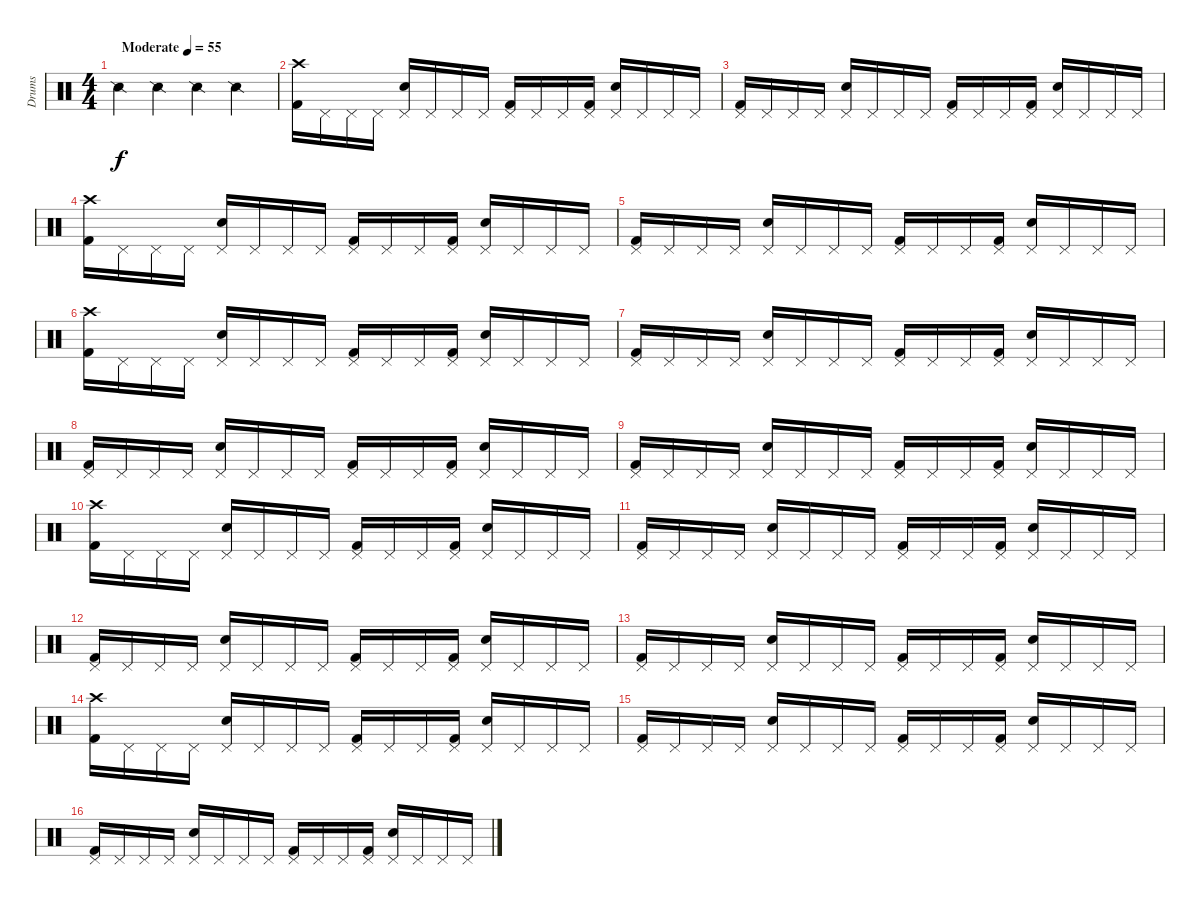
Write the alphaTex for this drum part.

\track ("Drums" "Drums") {instrument percussion}
\staff {score}
\articulation defaults
\ts (4 4)
\tempo (55 "Moderate")
\clef neutral
\ks c "Snare (side stick) 2".4{dy f} "Snare (side stick) 2".4 "Snare (side stick) 2".4 "Snare (side stick) 2".4
|
("Crash high (hit)" "Kick (hit) 2").16 "Pedal Hi-Hat (hit)".16 "Pedal Hi-Hat (hit)".16 "Pedal Hi-Hat (hit)".16 ("Pedal Hi-Hat (hit)" "Electric Snare (hit)").16 "Pedal Hi-Hat (hit)".16 "Pedal Hi-Hat (hit)".16 "Pedal Hi-Hat (hit)".16 ("Pedal Hi-Hat (hit)" "Kick (hit) 2").16 "Pedal Hi-Hat (hit)".16 "Pedal Hi-Hat (hit)".16 ("Pedal Hi-Hat (hit)" "Kick (hit) 2").16 ("Pedal Hi-Hat (hit)" "Electric Snare (hit)").16 "Pedal Hi-Hat (hit)".16 "Pedal Hi-Hat (hit)".16 "Pedal Hi-Hat (hit)".16 |
("Pedal Hi-Hat (hit)" "Kick (hit) 2").16 "Pedal Hi-Hat (hit)".16 "Pedal Hi-Hat (hit)".16 "Pedal Hi-Hat (hit)".16 ("Pedal Hi-Hat (hit)" "Electric Snare (hit)").16 "Pedal Hi-Hat (hit)".16 "Pedal Hi-Hat (hit)".16 "Pedal Hi-Hat (hit)".16 ("Pedal Hi-Hat (hit)" "Kick (hit) 2").16 "Pedal Hi-Hat (hit)".16 "Pedal Hi-Hat (hit)".16 ("Pedal Hi-Hat (hit)" "Kick (hit) 2").16 ("Pedal Hi-Hat (hit)" "Electric Snare (hit)").16 "Pedal Hi-Hat (hit)".16 "Pedal Hi-Hat (hit)".16 "Pedal Hi-Hat (hit)".16 |
("Crash high (hit)" "Kick (hit) 2").16 "Pedal Hi-Hat (hit)".16 "Pedal Hi-Hat (hit)".16 "Pedal Hi-Hat (hit)".16 ("Pedal Hi-Hat (hit)" "Electric Snare (hit)").16 "Pedal Hi-Hat (hit)".16 "Pedal Hi-Hat (hit)".16 "Pedal Hi-Hat (hit)".16 ("Pedal Hi-Hat (hit)" "Kick (hit) 2").16 "Pedal Hi-Hat (hit)".16 "Pedal Hi-Hat (hit)".16 ("Pedal Hi-Hat (hit)" "Kick (hit) 2").16 ("Pedal Hi-Hat (hit)" "Electric Snare (hit)").16 "Pedal Hi-Hat (hit)".16 "Pedal Hi-Hat (hit)".16 "Pedal Hi-Hat (hit)".16 |
("Pedal Hi-Hat (hit)" "Kick (hit) 2").16 "Pedal Hi-Hat (hit)".16 "Pedal Hi-Hat (hit)".16 "Pedal Hi-Hat (hit)".16 ("Pedal Hi-Hat (hit)" "Electric Snare (hit)").16 "Pedal Hi-Hat (hit)".16 "Pedal Hi-Hat (hit)".16 "Pedal Hi-Hat (hit)".16 ("Pedal Hi-Hat (hit)" "Kick (hit) 2").16 "Pedal Hi-Hat (hit)".16 "Pedal Hi-Hat (hit)".16 ("Pedal Hi-Hat (hit)" "Kick (hit) 2").16 ("Pedal Hi-Hat (hit)" "Electric Snare (hit)").16 "Pedal Hi-Hat (hit)".16 "Pedal Hi-Hat (hit)".16 "Pedal Hi-Hat (hit)".16 |
("Crash high (hit)" "Kick (hit) 2").16 "Pedal Hi-Hat (hit)".16 "Pedal Hi-Hat (hit)".16 "Pedal Hi-Hat (hit)".16 ("Pedal Hi-Hat (hit)" "Electric Snare (hit)").16 "Pedal Hi-Hat (hit)".16 "Pedal Hi-Hat (hit)".16 "Pedal Hi-Hat (hit)".16 ("Pedal Hi-Hat (hit)" "Kick (hit) 2").16 "Pedal Hi-Hat (hit)".16 "Pedal Hi-Hat (hit)".16 ("Pedal Hi-Hat (hit)" "Kick (hit) 2").16 ("Pedal Hi-Hat (hit)" "Electric Snare (hit)").16 "Pedal Hi-Hat (hit)".16 "Pedal Hi-Hat (hit)".16 "Pedal Hi-Hat (hit)".16 |
("Pedal Hi-Hat (hit)" "Kick (hit) 2").16 "Pedal Hi-Hat (hit)".16 "Pedal Hi-Hat (hit)".16 "Pedal Hi-Hat (hit)".16 ("Pedal Hi-Hat (hit)" "Electric Snare (hit)").16 "Pedal Hi-Hat (hit)".16 "Pedal Hi-Hat (hit)".16 "Pedal Hi-Hat (hit)".16 ("Pedal Hi-Hat (hit)" "Kick (hit) 2").16 "Pedal Hi-Hat (hit)".16 "Pedal Hi-Hat (hit)".16 ("Pedal Hi-Hat (hit)" "Kick (hit) 2").16 ("Pedal Hi-Hat (hit)" "Electric Snare (hit)").16 "Pedal Hi-Hat (hit)".16 "Pedal Hi-Hat (hit)".16 "Pedal Hi-Hat (hit)".16 |
("Pedal Hi-Hat (hit)" "Kick (hit) 2").16 "Pedal Hi-Hat (hit)".16 "Pedal Hi-Hat (hit)".16 "Pedal Hi-Hat (hit)".16 ("Pedal Hi-Hat (hit)" "Electric Snare (hit)").16 "Pedal Hi-Hat (hit)".16 "Pedal Hi-Hat (hit)".16 "Pedal Hi-Hat (hit)".16 ("Pedal Hi-Hat (hit)" "Kick (hit) 2").16 "Pedal Hi-Hat (hit)".16 "Pedal Hi-Hat (hit)".16 ("Pedal Hi-Hat (hit)" "Kick (hit) 2").16 ("Pedal Hi-Hat (hit)" "Electric Snare (hit)").16 "Pedal Hi-Hat (hit)".16 "Pedal Hi-Hat (hit)".16 "Pedal Hi-Hat (hit)".16 |
("Pedal Hi-Hat (hit)" "Kick (hit) 2").16 "Pedal Hi-Hat (hit)".16 "Pedal Hi-Hat (hit)".16 "Pedal Hi-Hat (hit)".16 ("Pedal Hi-Hat (hit)" "Electric Snare (hit)").16 "Pedal Hi-Hat (hit)".16 "Pedal Hi-Hat (hit)".16 "Pedal Hi-Hat (hit)".16 ("Pedal Hi-Hat (hit)" "Kick (hit) 2").16 "Pedal Hi-Hat (hit)".16 "Pedal Hi-Hat (hit)".16 ("Pedal Hi-Hat (hit)" "Kick (hit) 2").16 ("Pedal Hi-Hat (hit)" "Electric Snare (hit)").16 "Pedal Hi-Hat (hit)".16 "Pedal Hi-Hat (hit)".16 "Pedal Hi-Hat (hit)".16 |
("Crash high (hit)" "Kick (hit) 2").16 "Pedal Hi-Hat (hit)".16 "Pedal Hi-Hat (hit)".16 "Pedal Hi-Hat (hit)".16 ("Pedal Hi-Hat (hit)" "Electric Snare (hit)").16 "Pedal Hi-Hat (hit)".16 "Pedal Hi-Hat (hit)".16 "Pedal Hi-Hat (hit)".16 ("Pedal Hi-Hat (hit)" "Kick (hit) 2").16 "Pedal Hi-Hat (hit)".16 "Pedal Hi-Hat (hit)".16 ("Pedal Hi-Hat (hit)" "Kick (hit) 2").16 ("Pedal Hi-Hat (hit)" "Electric Snare (hit)").16 "Pedal Hi-Hat (hit)".16 "Pedal Hi-Hat (hit)".16 "Pedal Hi-Hat (hit)".16 |
("Pedal Hi-Hat (hit)" "Kick (hit) 2").16 "Pedal Hi-Hat (hit)".16 "Pedal Hi-Hat (hit)".16 "Pedal Hi-Hat (hit)".16 ("Pedal Hi-Hat (hit)" "Electric Snare (hit)").16 "Pedal Hi-Hat (hit)".16 "Pedal Hi-Hat (hit)".16 "Pedal Hi-Hat (hit)".16 ("Pedal Hi-Hat (hit)" "Kick (hit) 2").16 "Pedal Hi-Hat (hit)".16 "Pedal Hi-Hat (hit)".16 ("Pedal Hi-Hat (hit)" "Kick (hit) 2").16 ("Pedal Hi-Hat (hit)" "Electric Snare (hit)").16 "Pedal Hi-Hat (hit)".16 "Pedal Hi-Hat (hit)".16 "Pedal Hi-Hat (hit)".16 |
("Pedal Hi-Hat (hit)" "Kick (hit) 2").16 "Pedal Hi-Hat (hit)".16 "Pedal Hi-Hat (hit)".16 "Pedal Hi-Hat (hit)".16 ("Pedal Hi-Hat (hit)" "Electric Snare (hit)").16 "Pedal Hi-Hat (hit)".16 "Pedal Hi-Hat (hit)".16 "Pedal Hi-Hat (hit)".16 ("Pedal Hi-Hat (hit)" "Kick (hit) 2").16 "Pedal Hi-Hat (hit)".16 "Pedal Hi-Hat (hit)".16 ("Pedal Hi-Hat (hit)" "Kick (hit) 2").16 ("Pedal Hi-Hat (hit)" "Electric Snare (hit)").16 "Pedal Hi-Hat (hit)".16 "Pedal Hi-Hat (hit)".16 "Pedal Hi-Hat (hit)".16 |
("Pedal Hi-Hat (hit)" "Kick (hit) 2").16 "Pedal Hi-Hat (hit)".16 "Pedal Hi-Hat (hit)".16 "Pedal Hi-Hat (hit)".16 ("Pedal Hi-Hat (hit)" "Electric Snare (hit)").16 "Pedal Hi-Hat (hit)".16 "Pedal Hi-Hat (hit)".16 "Pedal Hi-Hat (hit)".16 ("Pedal Hi-Hat (hit)" "Kick (hit) 2").16 "Pedal Hi-Hat (hit)".16 "Pedal Hi-Hat (hit)".16 ("Pedal Hi-Hat (hit)" "Kick (hit) 2").16 ("Pedal Hi-Hat (hit)" "Electric Snare (hit)").16 "Pedal Hi-Hat (hit)".16 "Pedal Hi-Hat (hit)".16 "Pedal Hi-Hat (hit)".16 |
("Crash high (hit)" "Kick (hit) 2").16 "Pedal Hi-Hat (hit)".16 "Pedal Hi-Hat (hit)".16 "Pedal Hi-Hat (hit)".16 ("Pedal Hi-Hat (hit)" "Electric Snare (hit)").16 "Pedal Hi-Hat (hit)".16 "Pedal Hi-Hat (hit)".16 "Pedal Hi-Hat (hit)".16 ("Pedal Hi-Hat (hit)" "Kick (hit) 2").16 "Pedal Hi-Hat (hit)".16 "Pedal Hi-Hat (hit)".16 ("Pedal Hi-Hat (hit)" "Kick (hit) 2").16 ("Pedal Hi-Hat (hit)" "Electric Snare (hit)").16 "Pedal Hi-Hat (hit)".16 "Pedal Hi-Hat (hit)".16 "Pedal Hi-Hat (hit)".16 |
("Pedal Hi-Hat (hit)" "Kick (hit) 2").16 "Pedal Hi-Hat (hit)".16 "Pedal Hi-Hat (hit)".16 "Pedal Hi-Hat (hit)".16 ("Pedal Hi-Hat (hit)" "Electric Snare (hit)").16 "Pedal Hi-Hat (hit)".16 "Pedal Hi-Hat (hit)".16 "Pedal Hi-Hat (hit)".16 ("Pedal Hi-Hat (hit)" "Kick (hit) 2").16 "Pedal Hi-Hat (hit)".16 "Pedal Hi-Hat (hit)".16 ("Pedal Hi-Hat (hit)" "Kick (hit) 2").16 ("Pedal Hi-Hat (hit)" "Electric Snare (hit)").16 "Pedal Hi-Hat (hit)".16 "Pedal Hi-Hat (hit)".16 "Pedal Hi-Hat (hit)".16 |
("Pedal Hi-Hat (hit)" "Kick (hit) 2").16 "Pedal Hi-Hat (hit)".16 "Pedal Hi-Hat (hit)".16 "Pedal Hi-Hat (hit)".16 ("Pedal Hi-Hat (hit)" "Electric Snare (hit)").16 "Pedal Hi-Hat (hit)".16 "Pedal Hi-Hat (hit)".16 "Pedal Hi-Hat (hit)".16 ("Pedal Hi-Hat (hit)" "Kick (hit) 2").16 "Pedal Hi-Hat (hit)".16 "Pedal Hi-Hat (hit)".16 ("Pedal Hi-Hat (hit)" "Kick (hit) 2").16 ("Pedal Hi-Hat (hit)" "Electric Snare (hit)").16 "Pedal Hi-Hat (hit)".16 "Pedal Hi-Hat (hit)".16 "Pedal Hi-Hat (hit)".16
